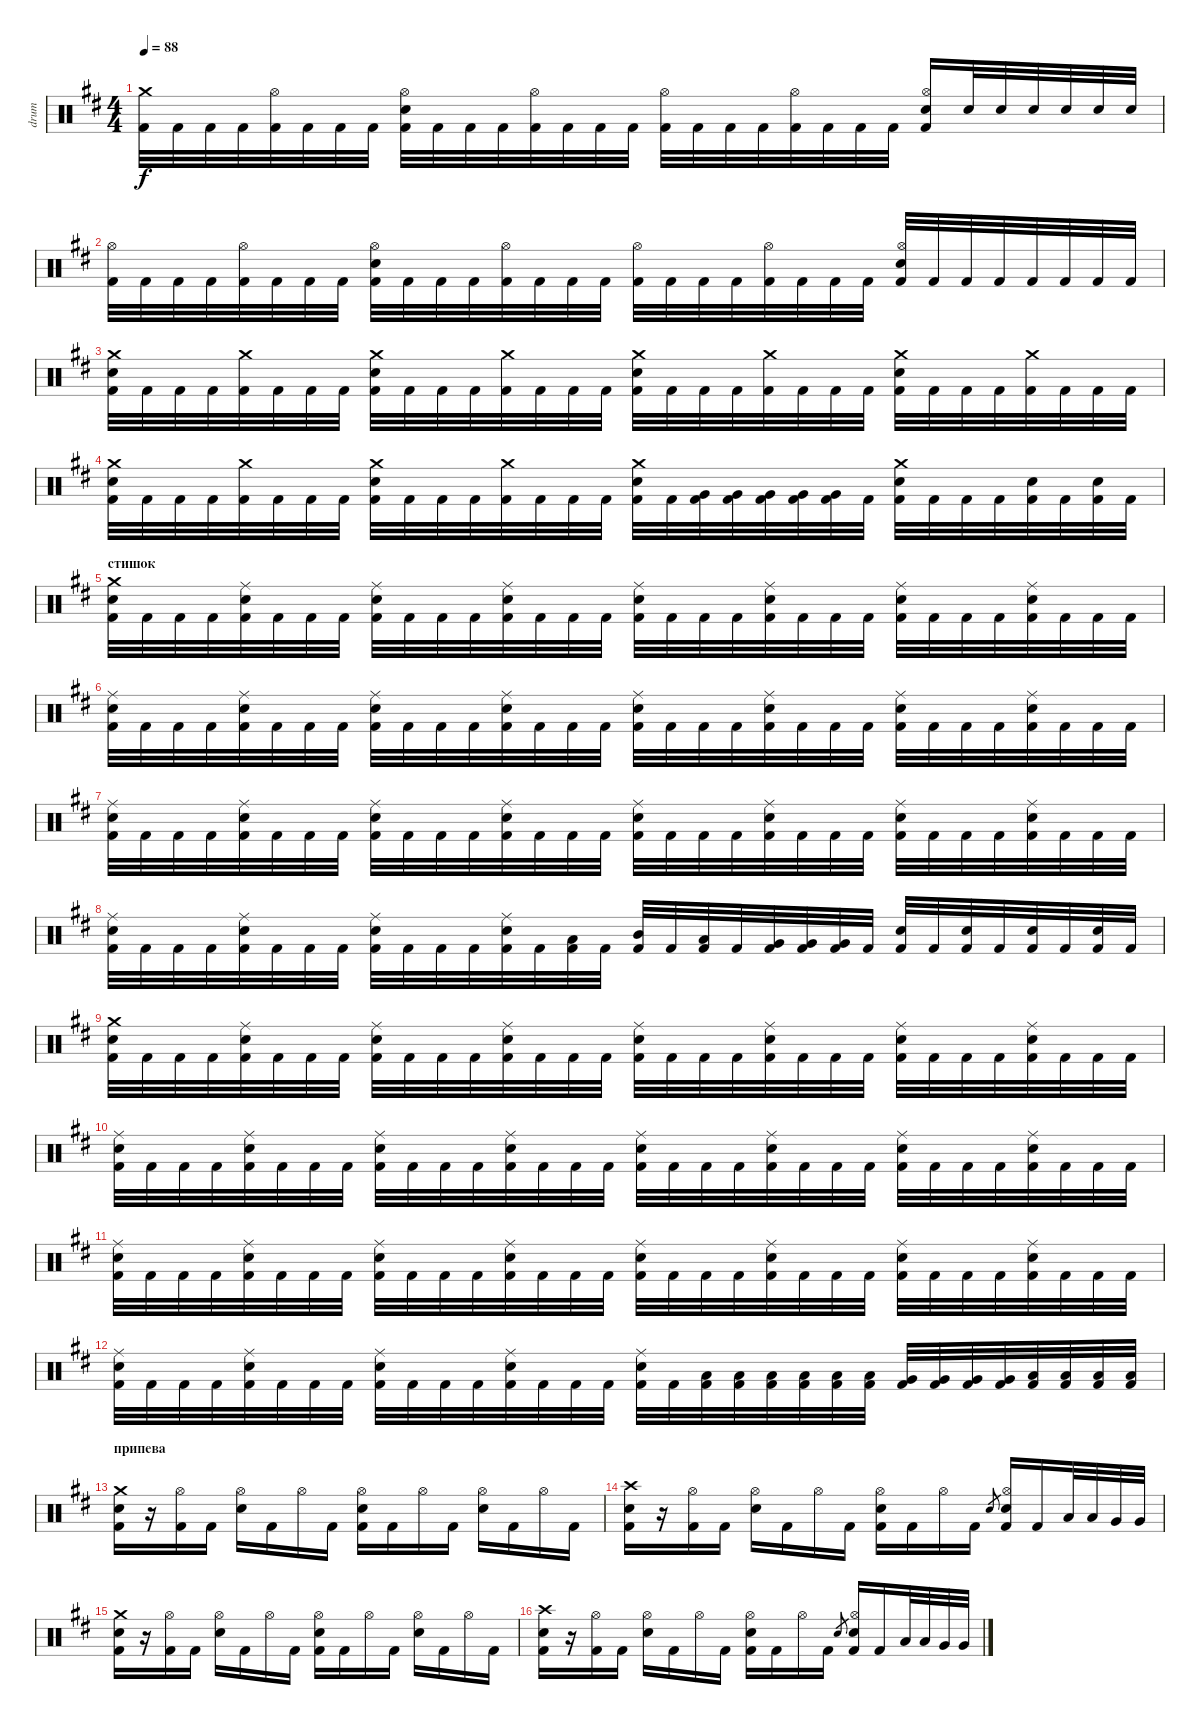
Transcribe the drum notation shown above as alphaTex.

\track ("drum" "drum") {instrument percussion}
\staff {score}
\articulation defaults
\ts (4 4)
\tempo 88
\clef neutral
\ks bminor
("Crash medium (hit)" "Kick (hit) 2").32{dy f} "Kick (hit) 2".32 "Kick (hit) 2".32 "Kick (hit) 2".32 ("Hi-Hat (open)" "Kick (hit) 2").32 "Kick (hit) 2".32 "Kick (hit) 2".32 "Kick (hit) 2".32 ("Hi-Hat (open)" "Electric Snare (hit)" "Kick (hit) 2").32 "Kick (hit) 2".32 "Kick (hit) 2".32 "Kick (hit) 2".32 ("Hi-Hat (open)" "Kick (hit) 2").32 "Kick (hit) 2".32 "Kick (hit) 2".32 "Kick (hit) 2".32 ("Hi-Hat (open)" "Kick (hit) 2").32 "Kick (hit) 2".32 "Kick (hit) 2".32 "Kick (hit) 2".32 ("Hi-Hat (open)" "Kick (hit) 2").32 "Kick (hit) 2".32 "Kick (hit) 2".32 "Kick (hit) 2".32 ("Hi-Hat (open)" "Electric Snare (hit)" "Kick (hit) 2").16 "Electric Snare (hit)".32 "Electric Snare (hit)".32 "Electric Snare (hit)".32 "Electric Snare (hit)".32 "Electric Snare (hit)".32 "Electric Snare (hit)".32 |
("Hi-Hat (open)" "Kick (hit) 2").32 "Kick (hit) 2".32 "Kick (hit) 2".32 "Kick (hit) 2".32 ("Hi-Hat (open)" "Kick (hit) 2").32 "Kick (hit) 2".32 "Kick (hit) 2".32 "Kick (hit) 2".32 ("Hi-Hat (open)" "Electric Snare (hit)" "Kick (hit) 2").32 "Kick (hit) 2".32 "Kick (hit) 2".32 "Kick (hit) 2".32 ("Hi-Hat (open)" "Kick (hit) 2").32 "Kick (hit) 2".32 "Kick (hit) 2".32 "Kick (hit) 2".32 ("Hi-Hat (open)" "Kick (hit) 2").32 "Kick (hit) 2".32 "Kick (hit) 2".32 "Kick (hit) 2".32 ("Hi-Hat (open)" "Kick (hit) 2").32 "Kick (hit) 2".32 "Kick (hit) 2".32 "Kick (hit) 2".32 ("Hi-Hat (open)" "Electric Snare (hit)" "Kick (hit) 2").32 "Kick (hit) 2".32 "Kick (hit) 2".32 "Kick (hit) 2".32 "Kick (hit) 2".32 "Kick (hit) 2".32 "Kick (hit) 2".32 "Kick (hit) 2".32 |
("Crash medium (hit)" "Electric Snare (hit)" "Kick (hit) 2").32 "Kick (hit) 2".32 "Kick (hit) 2".32 "Kick (hit) 2".32 ("Crash medium (hit)" "Kick (hit) 2").32 "Kick (hit) 2".32 "Kick (hit) 2".32 "Kick (hit) 2".32 ("Crash medium (hit)" "Electric Snare (hit)" "Kick (hit) 2").32 "Kick (hit) 2".32 "Kick (hit) 2".32 "Kick (hit) 2".32 ("Crash medium (hit)" "Kick (hit) 2").32 "Kick (hit) 2".32 "Kick (hit) 2".32 "Kick (hit) 2".32 ("Crash medium (hit)" "Electric Snare (hit)" "Kick (hit) 2").32 "Kick (hit) 2".32 "Kick (hit) 2".32 "Kick (hit) 2".32 ("Crash medium (hit)" "Kick (hit) 2").32 "Kick (hit) 2".32 "Kick (hit) 2".32 "Kick (hit) 2".32 ("Crash medium (hit)" "Electric Snare (hit)" "Kick (hit) 2").32 "Kick (hit) 2".32 "Kick (hit) 2".32 "Kick (hit) 2".32 ("Crash medium (hit)" "Kick (hit) 2").32 "Kick (hit) 2".32 "Kick (hit) 2".32 "Kick (hit) 2".32 |
("Crash medium (hit)" "Electric Snare (hit)" "Kick (hit) 2").32 "Kick (hit) 2".32 "Kick (hit) 2".32 "Kick (hit) 2".32 ("Crash medium (hit)" "Kick (hit) 2").32 "Kick (hit) 2".32 "Kick (hit) 2".32 "Kick (hit) 2".32 ("Crash medium (hit)" "Electric Snare (hit)" "Kick (hit) 2").32 "Kick (hit) 2".32 "Kick (hit) 2".32 "Kick (hit) 2".32 ("Crash medium (hit)" "Kick (hit) 2").32 "Kick (hit) 2".32 "Kick (hit) 2".32 "Kick (hit) 2".32 ("Crash medium (hit)" "Electric Snare (hit)" "Kick (hit) 2").32 "Kick (hit) 2".32 ("Very Low Tom (hit)" "Kick (hit) 2").32 ("Very Low Tom (hit)" "Kick (hit) 2").32 ("Very Low Tom (hit)" "Kick (hit) 2").32 ("Very Low Tom (hit)" "Kick (hit) 2").32 ("Very Low Tom (hit)" "Kick (hit) 2").32 "Kick (hit) 2".32 ("Crash medium (hit)" "Electric Snare (hit)" "Kick (hit) 2").32 "Kick (hit) 2".32 "Kick (hit) 2".32 "Kick (hit) 2".32 ("Electric Snare (hit)" "Kick (hit) 2").32 "Kick (hit) 2".32 ("Electric Snare (hit)" "Kick (hit) 2").32 "Kick (hit) 2".32 |
\section ("" "стишок")
("Crash medium (hit)" "Electric Snare (hit)" "Kick (hit) 2").32 "Kick (hit) 2".32 "Kick (hit) 2".32 "Kick (hit) 2".32 ("Ride (middle)" "Electric Snare (hit)" "Kick (hit) 2").32 "Kick (hit) 2".32 "Kick (hit) 2".32 "Kick (hit) 2".32 ("Ride (middle)" "Electric Snare (hit)" "Kick (hit) 2").32 "Kick (hit) 2".32 "Kick (hit) 2".32 "Kick (hit) 2".32 ("Ride (middle)" "Electric Snare (hit)" "Kick (hit) 2").32 "Kick (hit) 2".32 "Kick (hit) 2".32 "Kick (hit) 2".32 ("Ride (middle)" "Electric Snare (hit)" "Kick (hit) 2").32 "Kick (hit) 2".32 "Kick (hit) 2".32 "Kick (hit) 2".32 ("Ride (middle)" "Electric Snare (hit)" "Kick (hit) 2").32 "Kick (hit) 2".32 "Kick (hit) 2".32 "Kick (hit) 2".32 ("Ride (middle)" "Electric Snare (hit)" "Kick (hit) 2").32 "Kick (hit) 2".32 "Kick (hit) 2".32 "Kick (hit) 2".32 ("Ride (middle)" "Electric Snare (hit)" "Kick (hit) 2").32 "Kick (hit) 2".32 "Kick (hit) 2".32 "Kick (hit) 2".32 |
("Ride (middle)" "Electric Snare (hit)" "Kick (hit) 2").32 "Kick (hit) 2".32 "Kick (hit) 2".32 "Kick (hit) 2".32 ("Ride (middle)" "Electric Snare (hit)" "Kick (hit) 2").32 "Kick (hit) 2".32 "Kick (hit) 2".32 "Kick (hit) 2".32 ("Ride (middle)" "Electric Snare (hit)" "Kick (hit) 2").32 "Kick (hit) 2".32 "Kick (hit) 2".32 "Kick (hit) 2".32 ("Ride (middle)" "Electric Snare (hit)" "Kick (hit) 2").32 "Kick (hit) 2".32 "Kick (hit) 2".32 "Kick (hit) 2".32 ("Ride (middle)" "Electric Snare (hit)" "Kick (hit) 2").32 "Kick (hit) 2".32 "Kick (hit) 2".32 "Kick (hit) 2".32 ("Ride (middle)" "Electric Snare (hit)" "Kick (hit) 2").32 "Kick (hit) 2".32 "Kick (hit) 2".32 "Kick (hit) 2".32 ("Ride (middle)" "Electric Snare (hit)" "Kick (hit) 2").32 "Kick (hit) 2".32 "Kick (hit) 2".32 "Kick (hit) 2".32 ("Ride (middle)" "Electric Snare (hit)" "Kick (hit) 2").32 "Kick (hit) 2".32 "Kick (hit) 2".32 "Kick (hit) 2".32 |
("Ride (middle)" "Electric Snare (hit)" "Kick (hit) 2").32 "Kick (hit) 2".32 "Kick (hit) 2".32 "Kick (hit) 2".32 ("Ride (middle)" "Electric Snare (hit)" "Kick (hit) 2").32 "Kick (hit) 2".32 "Kick (hit) 2".32 "Kick (hit) 2".32 ("Ride (middle)" "Electric Snare (hit)" "Kick (hit) 2").32 "Kick (hit) 2".32 "Kick (hit) 2".32 "Kick (hit) 2".32 ("Ride (middle)" "Electric Snare (hit)" "Kick (hit) 2").32 "Kick (hit) 2".32 "Kick (hit) 2".32 "Kick (hit) 2".32 ("Ride (middle)" "Electric Snare (hit)" "Kick (hit) 2").32 "Kick (hit) 2".32 "Kick (hit) 2".32 "Kick (hit) 2".32 ("Ride (middle)" "Electric Snare (hit)" "Kick (hit) 2").32 "Kick (hit) 2".32 "Kick (hit) 2".32 "Kick (hit) 2".32 ("Ride (middle)" "Electric Snare (hit)" "Kick (hit) 2").32 "Kick (hit) 2".32 "Kick (hit) 2".32 "Kick (hit) 2".32 ("Ride (middle)" "Electric Snare (hit)" "Kick (hit) 2").32 "Kick (hit) 2".32 "Kick (hit) 2".32 "Kick (hit) 2".32 |
("Ride (middle)" "Electric Snare (hit)" "Kick (hit) 2").32 "Kick (hit) 2".32 "Kick (hit) 2".32 "Kick (hit) 2".32 ("Ride (middle)" "Electric Snare (hit)" "Kick (hit) 2").32 "Kick (hit) 2".32 "Kick (hit) 2".32 "Kick (hit) 2".32 ("Ride (middle)" "Electric Snare (hit)" "Kick (hit) 2").32 "Kick (hit) 2".32 "Kick (hit) 2".32 "Kick (hit) 2".32 ("Ride (middle)" "Electric Snare (hit)" "Kick (hit) 2").32 "Kick (hit) 2".32 ("Low Tom (hit)" "Kick (hit) 2").32 "Kick (hit) 2".32 ("Mid Tom (hit)" "Kick (hit) 2").32 "Kick (hit) 2".32 ("Low Tom (hit)" "Kick (hit) 2").32 "Kick (hit) 2".32 ("Very Low Tom (hit)" "Kick (hit) 2").32 ("Very Low Tom (hit)" "Kick (hit) 2").32 ("Very Low Tom (hit)" "Kick (hit) 2").32 "Kick (hit) 2".32 ("Electric Snare (hit)" "Kick (hit) 2").32 "Kick (hit) 2".32 ("Electric Snare (hit)" "Kick (hit) 2").32 "Kick (hit) 2".32 ("Electric Snare (hit)" "Kick (hit) 2").32 "Kick (hit) 2".32 ("Electric Snare (hit)" "Kick (hit) 2").32 "Kick (hit) 2".32 |
("Crash medium (hit)" "Electric Snare (hit)" "Kick (hit) 2").32 "Kick (hit) 2".32 "Kick (hit) 2".32 "Kick (hit) 2".32 ("Ride (middle)" "Electric Snare (hit)" "Kick (hit) 2").32 "Kick (hit) 2".32 "Kick (hit) 2".32 "Kick (hit) 2".32 ("Ride (middle)" "Electric Snare (hit)" "Kick (hit) 2").32 "Kick (hit) 2".32 "Kick (hit) 2".32 "Kick (hit) 2".32 ("Ride (middle)" "Electric Snare (hit)" "Kick (hit) 2").32 "Kick (hit) 2".32 "Kick (hit) 2".32 "Kick (hit) 2".32 ("Ride (middle)" "Electric Snare (hit)" "Kick (hit) 2").32 "Kick (hit) 2".32 "Kick (hit) 2".32 "Kick (hit) 2".32 ("Ride (middle)" "Electric Snare (hit)" "Kick (hit) 2").32 "Kick (hit) 2".32 "Kick (hit) 2".32 "Kick (hit) 2".32 ("Ride (middle)" "Electric Snare (hit)" "Kick (hit) 2").32 "Kick (hit) 2".32 "Kick (hit) 2".32 "Kick (hit) 2".32 ("Ride (middle)" "Electric Snare (hit)" "Kick (hit) 2").32 "Kick (hit) 2".32 "Kick (hit) 2".32 "Kick (hit) 2".32 |
("Ride (middle)" "Electric Snare (hit)" "Kick (hit) 2").32 "Kick (hit) 2".32 "Kick (hit) 2".32 "Kick (hit) 2".32 ("Ride (middle)" "Electric Snare (hit)" "Kick (hit) 2").32 "Kick (hit) 2".32 "Kick (hit) 2".32 "Kick (hit) 2".32 ("Ride (middle)" "Electric Snare (hit)" "Kick (hit) 2").32 "Kick (hit) 2".32 "Kick (hit) 2".32 "Kick (hit) 2".32 ("Ride (middle)" "Electric Snare (hit)" "Kick (hit) 2").32 "Kick (hit) 2".32 "Kick (hit) 2".32 "Kick (hit) 2".32 ("Ride (middle)" "Electric Snare (hit)" "Kick (hit) 2").32 "Kick (hit) 2".32 "Kick (hit) 2".32 "Kick (hit) 2".32 ("Ride (middle)" "Electric Snare (hit)" "Kick (hit) 2").32 "Kick (hit) 2".32 "Kick (hit) 2".32 "Kick (hit) 2".32 ("Ride (middle)" "Electric Snare (hit)" "Kick (hit) 2").32 "Kick (hit) 2".32 "Kick (hit) 2".32 "Kick (hit) 2".32 ("Ride (middle)" "Electric Snare (hit)" "Kick (hit) 2").32 "Kick (hit) 2".32 "Kick (hit) 2".32 "Kick (hit) 2".32 |
("Ride (middle)" "Electric Snare (hit)" "Kick (hit) 2").32 "Kick (hit) 2".32 "Kick (hit) 2".32 "Kick (hit) 2".32 ("Ride (middle)" "Electric Snare (hit)" "Kick (hit) 2").32 "Kick (hit) 2".32 "Kick (hit) 2".32 "Kick (hit) 2".32 ("Ride (middle)" "Electric Snare (hit)" "Kick (hit) 2").32 "Kick (hit) 2".32 "Kick (hit) 2".32 "Kick (hit) 2".32 ("Ride (middle)" "Electric Snare (hit)" "Kick (hit) 2").32 "Kick (hit) 2".32 "Kick (hit) 2".32 "Kick (hit) 2".32 ("Ride (middle)" "Electric Snare (hit)" "Kick (hit) 2").32 "Kick (hit) 2".32 "Kick (hit) 2".32 "Kick (hit) 2".32 ("Ride (middle)" "Electric Snare (hit)" "Kick (hit) 2").32 "Kick (hit) 2".32 "Kick (hit) 2".32 "Kick (hit) 2".32 ("Ride (middle)" "Electric Snare (hit)" "Kick (hit) 2").32 "Kick (hit) 2".32 "Kick (hit) 2".32 "Kick (hit) 2".32 ("Ride (middle)" "Electric Snare (hit)" "Kick (hit) 2").32 "Kick (hit) 2".32 "Kick (hit) 2".32 "Kick (hit) 2".32 |
("Ride (middle)" "Electric Snare (hit)" "Kick (hit) 2").32 "Kick (hit) 2".32 "Kick (hit) 2".32 "Kick (hit) 2".32 ("Ride (middle)" "Electric Snare (hit)" "Kick (hit) 2").32 "Kick (hit) 2".32 "Kick (hit) 2".32 "Kick (hit) 2".32 ("Ride (middle)" "Electric Snare (hit)" "Kick (hit) 2").32 "Kick (hit) 2".32 "Kick (hit) 2".32 "Kick (hit) 2".32 ("Ride (middle)" "Electric Snare (hit)" "Kick (hit) 2").32 "Kick (hit) 2".32 "Kick (hit) 2".32 "Kick (hit) 2".32 ("Ride (middle)" "Electric Snare (hit)" "Kick (hit) 2").32 "Kick (hit) 2".32 ("Low Tom (hit)" "Kick (hit) 2").32 ("Low Tom (hit)" "Kick (hit) 2").32 ("Low Tom (hit)" "Kick (hit) 2").32 ("Low Tom (hit)" "Kick (hit) 2").32 ("Low Tom (hit)" "Kick (hit) 2").32 ("Low Tom (hit)" "Kick (hit) 2").32 ("Very Low Tom (hit)" "Kick (hit) 2").32 ("Very Low Tom (hit)" "Kick (hit) 2").32 ("Very Low Tom (hit)" "Kick (hit) 2").32 ("Very Low Tom (hit)" "Kick (hit) 2").32 ("Low Floor Tom (hit)" "Kick (hit) 2").32 ("Low Floor Tom (hit)" "Kick (hit) 2").32 ("Low Floor Tom (hit)" "Kick (hit) 2").32 ("Low Floor Tom (hit)" "Kick (hit) 2").32 |
\section ("" "припева")
("Crash medium (hit)" "Electric Snare (hit)" "Kick (hit) 2").16 r.16 ("Hi-Hat (open)" "Kick (hit) 2").16 "Kick (hit) 2".16 ("Hi-Hat (open)" "Electric Snare (hit)").16 "Kick (hit) 2".16 "Hi-Hat (open)".16 "Kick (hit) 2".16 ("Hi-Hat (open)" "Electric Snare (hit)" "Kick (hit) 2").16 "Kick (hit) 2".16 "Hi-Hat (open)".16 "Kick (hit) 2".16 ("Hi-Hat (open)" "Electric Snare (hit)").16 "Kick (hit) 2".16 "Hi-Hat (open)".16 "Kick (hit) 2".16 |
("Crash high (hit)" "Electric Snare (hit)" "Kick (hit) 2").16 r.16 ("Hi-Hat (open)" "Kick (hit) 2").16 "Kick (hit) 2".16 ("Hi-Hat (open)" "Electric Snare (hit)").16 "Kick (hit) 2".16 "Hi-Hat (open)".16 "Kick (hit) 2".16 ("Hi-Hat (open)" "Electric Snare (hit)" "Kick (hit) 2").16 "Kick (hit) 2".16 "Hi-Hat (open)".16 "Kick (hit) 2".16 "Electric Snare (hit)".8{gr} ("Hi-Hat (open)" "Electric Snare (hit)" "Kick (hit) 2").16 "Kick (hit) 2".16 "Low Tom (hit)".32 "Low Tom (hit)".32 "Very Low Tom (hit)".32 "Very Low Tom (hit)".32 |
("Crash medium (hit)" "Electric Snare (hit)" "Kick (hit) 2").16 r.16 ("Hi-Hat (open)" "Kick (hit) 2").16 "Kick (hit) 2".16 ("Hi-Hat (open)" "Electric Snare (hit)").16 "Kick (hit) 2".16 "Hi-Hat (open)".16 "Kick (hit) 2".16 ("Hi-Hat (open)" "Electric Snare (hit)" "Kick (hit) 2").16 "Kick (hit) 2".16 "Hi-Hat (open)".16 "Kick (hit) 2".16 ("Hi-Hat (open)" "Electric Snare (hit)").16 "Kick (hit) 2".16 "Hi-Hat (open)".16 "Kick (hit) 2".16 |
("Crash high (hit)" "Electric Snare (hit)" "Kick (hit) 2").16 r.16 ("Hi-Hat (open)" "Kick (hit) 2").16 "Kick (hit) 2".16 ("Hi-Hat (open)" "Electric Snare (hit)").16 "Kick (hit) 2".16 "Hi-Hat (open)".16 "Kick (hit) 2".16 ("Hi-Hat (open)" "Electric Snare (hit)" "Kick (hit) 2").16 "Kick (hit) 2".16 "Hi-Hat (open)".16 "Kick (hit) 2".16 "Electric Snare (hit)".8{gr} ("Hi-Hat (open)" "Electric Snare (hit)" "Kick (hit) 2").16 "Kick (hit) 2".16 "Low Tom (hit)".32 "Low Tom (hit)".32 "Very Low Tom (hit)".32 "Very Low Tom (hit)".32
